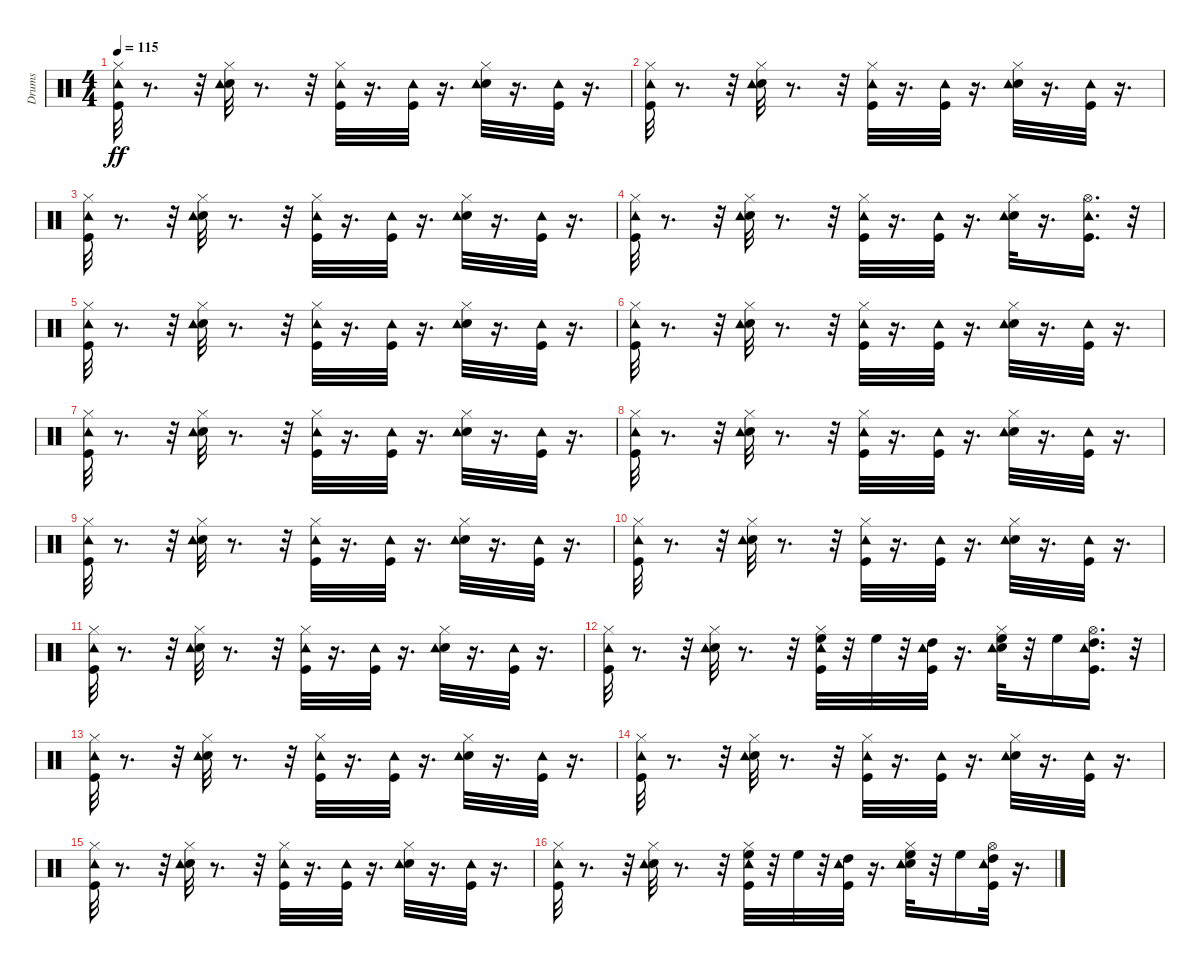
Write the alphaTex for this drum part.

\track ("Drums" "Drums") {instrument percussion}
\staff {score}
\articulation defaults
\ts (4 4)
\tempo 115
\clef neutral
\ks c
("Hi-Hat (closed)" "Kick (hit)" "Tambourine (hit)").32{dy ff} r.8{d} r.32 ("Hi-Hat (closed)" "Snare (hit) 2" "Tambourine (hit)").32 r.8{d} r.32 ("Hi-Hat (closed)" "Kick (hit)" "Tambourine (hit)").32 r.16{d} ("Kick (hit)" "Tambourine (hit)").32 r.16{d} ("Hi-Hat (closed)" "Snare (hit) 2" "Tambourine (hit)").32 r.16{d} ("Kick (hit)" "Tambourine (hit)").32 r.16{d} |
("Hi-Hat (closed)" "Kick (hit)" "Tambourine (hit)").32 r.8{d} r.32 ("Hi-Hat (closed)" "Snare (hit) 2" "Tambourine (hit)").32 r.8{d} r.32 ("Hi-Hat (closed)" "Kick (hit)" "Tambourine (hit)").32 r.16{d} ("Kick (hit)" "Tambourine (hit)").32 r.16{d} ("Hi-Hat (closed)" "Snare (hit) 2" "Tambourine (hit)").32 r.16{d} ("Kick (hit)" "Tambourine (hit)").32 r.16{d} |
("Hi-Hat (closed)" "Kick (hit)" "Tambourine (hit)").32 r.8{d} r.32 ("Hi-Hat (closed)" "Snare (hit) 2" "Tambourine (hit)").32 r.8{d} r.32 ("Hi-Hat (closed)" "Kick (hit)" "Tambourine (hit)").32 r.16{d} ("Kick (hit)" "Tambourine (hit)").32 r.16{d} ("Hi-Hat (closed)" "Snare (hit) 2" "Tambourine (hit)").32 r.16{d} ("Kick (hit)" "Tambourine (hit)").32 r.16{d} |
("Hi-Hat (closed)" "Kick (hit)" "Tambourine (hit)").32 r.8{d} r.32 ("Hi-Hat (closed)" "Snare (hit) 2" "Tambourine (hit)").32 r.8{d} r.32 ("Hi-Hat (closed)" "Kick (hit)" "Tambourine (hit)").32 r.16{d} ("Kick (hit)" "Tambourine (hit)").32 r.16{d} ("Hi-Hat (closed)" "Snare (hit) 2" "Tambourine (hit)").32 r.16{d} ("Kick (hit)" "Hi-Hat (open)" "Tambourine (hit)").16{d} r.32 |
("Hi-Hat (closed)" "Kick (hit)" "Tambourine (hit)").32 r.8{d} r.32 ("Hi-Hat (closed)" "Snare (hit) 2" "Tambourine (hit)").32 r.8{d} r.32 ("Hi-Hat (closed)" "Kick (hit)" "Tambourine (hit)").32 r.16{d} ("Kick (hit)" "Tambourine (hit)").32 r.16{d} ("Hi-Hat (closed)" "Snare (hit) 2" "Tambourine (hit)").32 r.16{d} ("Kick (hit)" "Tambourine (hit)").32 r.16{d} |
("Hi-Hat (closed)" "Kick (hit)" "Tambourine (hit)").32 r.8{d} r.32 ("Hi-Hat (closed)" "Snare (hit) 2" "Tambourine (hit)").32 r.8{d} r.32 ("Hi-Hat (closed)" "Kick (hit)" "Tambourine (hit)").32 r.16{d} ("Kick (hit)" "Tambourine (hit)").32 r.16{d} ("Hi-Hat (closed)" "Snare (hit) 2" "Tambourine (hit)").32 r.16{d} ("Kick (hit)" "Tambourine (hit)").32 r.16{d} |
("Hi-Hat (closed)" "Kick (hit)" "Tambourine (hit)").32 r.8{d} r.32 ("Hi-Hat (closed)" "Snare (hit) 2" "Tambourine (hit)").32 r.8{d} r.32 ("Hi-Hat (closed)" "Kick (hit)" "Tambourine (hit)").32 r.16{d} ("Kick (hit)" "Tambourine (hit)").32 r.16{d} ("Hi-Hat (closed)" "Snare (hit) 2" "Tambourine (hit)").32 r.16{d} ("Kick (hit)" "Tambourine (hit)").32 r.16{d} |
("Hi-Hat (closed)" "Kick (hit)" "Tambourine (hit)").32 r.8{d} r.32 ("Hi-Hat (closed)" "Snare (hit) 2" "Tambourine (hit)").32 r.8{d} r.32 ("Hi-Hat (closed)" "Kick (hit)" "Tambourine (hit)").32 r.16{d} ("Kick (hit)" "Tambourine (hit)").32 r.16{d} ("Hi-Hat (closed)" "Snare (hit) 2" "Tambourine (hit)").32 r.16{d} ("Kick (hit)" "Tambourine (hit)").32 r.16{d} |
("Hi-Hat (closed)" "Kick (hit)" "Tambourine (hit)").32 r.8{d} r.32 ("Hi-Hat (closed)" "Snare (hit) 2" "Tambourine (hit)").32 r.8{d} r.32 ("Hi-Hat (closed)" "Kick (hit)" "Tambourine (hit)").32 r.16{d} ("Kick (hit)" "Tambourine (hit)").32 r.16{d} ("Hi-Hat (closed)" "Snare (hit) 2" "Tambourine (hit)").32 r.16{d} ("Kick (hit)" "Tambourine (hit)").32 r.16{d} |
("Hi-Hat (closed)" "Kick (hit)" "Tambourine (hit)").32 r.8{d} r.32 ("Hi-Hat (closed)" "Snare (hit) 2" "Tambourine (hit)").32 r.8{d} r.32 ("Hi-Hat (closed)" "Kick (hit)" "Tambourine (hit)").32 r.16{d} ("Kick (hit)" "Tambourine (hit)").32 r.16{d} ("Hi-Hat (closed)" "Snare (hit) 2" "Tambourine (hit)").32 r.16{d} ("Kick (hit)" "Tambourine (hit)").32 r.16{d} |
("Hi-Hat (closed)" "Kick (hit)" "Tambourine (hit)").32 r.8{d} r.32 ("Hi-Hat (closed)" "Snare (hit) 2" "Tambourine (hit)").32 r.8{d} r.32 ("Hi-Hat (closed)" "Kick (hit)" "Tambourine (hit)").32 r.16{d} ("Kick (hit)" "Tambourine (hit)").32 r.16{d} ("Hi-Hat (closed)" "Snare (hit) 2" "Tambourine (hit)").32 r.16{d} ("Kick (hit)" "Tambourine (hit)").32 r.16{d} |
("Hi-Hat (closed)" "Kick (hit)" "Tambourine (hit)").32 r.8{d} r.32 ("Hi-Hat (closed)" "Snare (hit) 2" "Tambourine (hit)").32 r.8{d} r.32 ("Hi-Hat (closed)" "Kick (hit)" "Tambourine (hit)" "High Floor Tom (hit)").32 r.32 "High Floor Tom (hit)".32 r.32 ("High Tom (hit)" "Kick (hit)" "Tambourine (hit)").32 r.16{d} ("Hi-Hat (closed)" "Snare (hit) 2" "Tambourine (hit)" "High Floor Tom (hit)").32 r.32 "High Floor Tom (hit)".16 ("High Tom (hit)" "Hi-Hat (open)" "Kick (hit)" "Tambourine (hit)").16{d} r.32 |
("Hi-Hat (closed)" "Kick (hit)" "Tambourine (hit)").32 r.8{d} r.32 ("Hi-Hat (closed)" "Snare (hit) 2" "Tambourine (hit)").32 r.8{d} r.32 ("Hi-Hat (closed)" "Kick (hit)" "Tambourine (hit)").32 r.16{d} ("Kick (hit)" "Tambourine (hit)").32 r.16{d} ("Hi-Hat (closed)" "Snare (hit) 2" "Tambourine (hit)").32 r.16{d} ("Kick (hit)" "Tambourine (hit)").32 r.16{d} |
("Hi-Hat (closed)" "Kick (hit)" "Tambourine (hit)").32 r.8{d} r.32 ("Hi-Hat (closed)" "Snare (hit) 2" "Tambourine (hit)").32 r.8{d} r.32 ("Hi-Hat (closed)" "Kick (hit)" "Tambourine (hit)").32 r.16{d} ("Kick (hit)" "Tambourine (hit)").32 r.16{d} ("Hi-Hat (closed)" "Snare (hit) 2" "Tambourine (hit)").32 r.16{d} ("Kick (hit)" "Tambourine (hit)").32 r.16{d} |
("Hi-Hat (closed)" "Kick (hit)" "Tambourine (hit)").32 r.8{d} r.32 ("Hi-Hat (closed)" "Snare (hit) 2" "Tambourine (hit)").32 r.8{d} r.32 ("Hi-Hat (closed)" "Kick (hit)" "Tambourine (hit)").32 r.16{d} ("Kick (hit)" "Tambourine (hit)").32 r.16{d} ("Hi-Hat (closed)" "Snare (hit) 2" "Tambourine (hit)").32 r.16{d} ("Kick (hit)" "Tambourine (hit)").32 r.16{d} |
("Hi-Hat (closed)" "Kick (hit)" "Tambourine (hit)").32 r.8{d} r.32 ("Hi-Hat (closed)" "Snare (hit) 2" "Tambourine (hit)").32 r.8{d} r.32 ("High Floor Tom (hit)" "Hi-Hat (closed)" "Kick (hit)" "Tambourine (hit)").32 r.32 "High Floor Tom (hit)".32 r.32 ("High Tom (hit)" "Kick (hit)" "Tambourine (hit)").32 r.16{d} ("High Floor Tom (hit)" "Hi-Hat (closed)" "Snare (hit) 2" "Tambourine (hit)").32 r.32 "High Floor Tom (hit)".16 ("High Tom (hit)" "Kick (hit)" "Tambourine (hit)" "Hi-Hat (open)").32 r.16{d}
